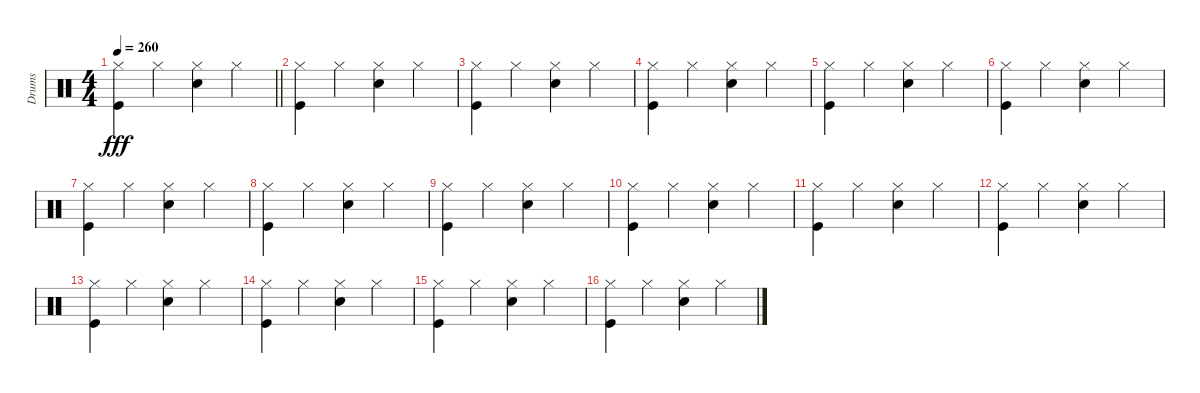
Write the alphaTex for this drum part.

\track ("Drums" "Drums") {instrument percussion}
\staff {score}
\articulation defaults
\ts (4 4)
\tempo 260
\clef neutral
\barLineRight lightlight
\ks c
("Hi-Hat (closed)" "Kick (hit)").4{dy fff} "Hi-Hat (closed)".4 ("Hi-Hat (closed)" "Snare (hit) 2").4 "Hi-Hat (closed)".4 |
("Hi-Hat (closed)" "Kick (hit)").4 "Hi-Hat (closed)".4 ("Hi-Hat (closed)" "Snare (hit) 2").4 "Hi-Hat (closed)".4 |
("Hi-Hat (closed)" "Kick (hit)").4 "Hi-Hat (closed)".4 ("Hi-Hat (closed)" "Snare (hit) 2").4 "Hi-Hat (closed)".4 |
("Hi-Hat (closed)" "Kick (hit)").4 "Hi-Hat (closed)".4 ("Hi-Hat (closed)" "Snare (hit) 2").4 "Hi-Hat (closed)".4 |
("Hi-Hat (closed)" "Kick (hit)").4 "Hi-Hat (closed)".4 ("Hi-Hat (closed)" "Snare (hit) 2").4 "Hi-Hat (closed)".4 |
("Hi-Hat (closed)" "Kick (hit)").4 "Hi-Hat (closed)".4 ("Hi-Hat (closed)" "Snare (hit) 2").4 "Hi-Hat (closed)".4 |
("Hi-Hat (closed)" "Kick (hit)").4 "Hi-Hat (closed)".4 ("Hi-Hat (closed)" "Snare (hit) 2").4 "Hi-Hat (closed)".4 |
("Hi-Hat (closed)" "Kick (hit)").4 "Hi-Hat (closed)".4 ("Hi-Hat (closed)" "Snare (hit) 2").4 "Hi-Hat (closed)".4 |
("Hi-Hat (closed)" "Kick (hit)").4 "Hi-Hat (closed)".4 ("Hi-Hat (closed)" "Snare (hit) 2").4 "Hi-Hat (closed)".4 |
("Hi-Hat (closed)" "Kick (hit)").4 "Hi-Hat (closed)".4 ("Hi-Hat (closed)" "Snare (hit) 2").4 "Hi-Hat (closed)".4 |
("Hi-Hat (closed)" "Kick (hit)").4 "Hi-Hat (closed)".4 ("Hi-Hat (closed)" "Snare (hit) 2").4 "Hi-Hat (closed)".4 |
("Hi-Hat (closed)" "Kick (hit)").4 "Hi-Hat (closed)".4 ("Hi-Hat (closed)" "Snare (hit) 2").4 "Hi-Hat (closed)".4 |
("Hi-Hat (closed)" "Kick (hit)").4 "Hi-Hat (closed)".4 ("Hi-Hat (closed)" "Snare (hit) 2").4 "Hi-Hat (closed)".4 |
("Hi-Hat (closed)" "Kick (hit)").4 "Hi-Hat (closed)".4 ("Hi-Hat (closed)" "Snare (hit) 2").4 "Hi-Hat (closed)".4 |
("Hi-Hat (closed)" "Kick (hit)").4 "Hi-Hat (closed)".4 ("Hi-Hat (closed)" "Snare (hit) 2").4 "Hi-Hat (closed)".4 |
("Hi-Hat (closed)" "Kick (hit)").4 "Hi-Hat (closed)".4 ("Hi-Hat (closed)" "Snare (hit) 2").4 "Hi-Hat (closed)".4
